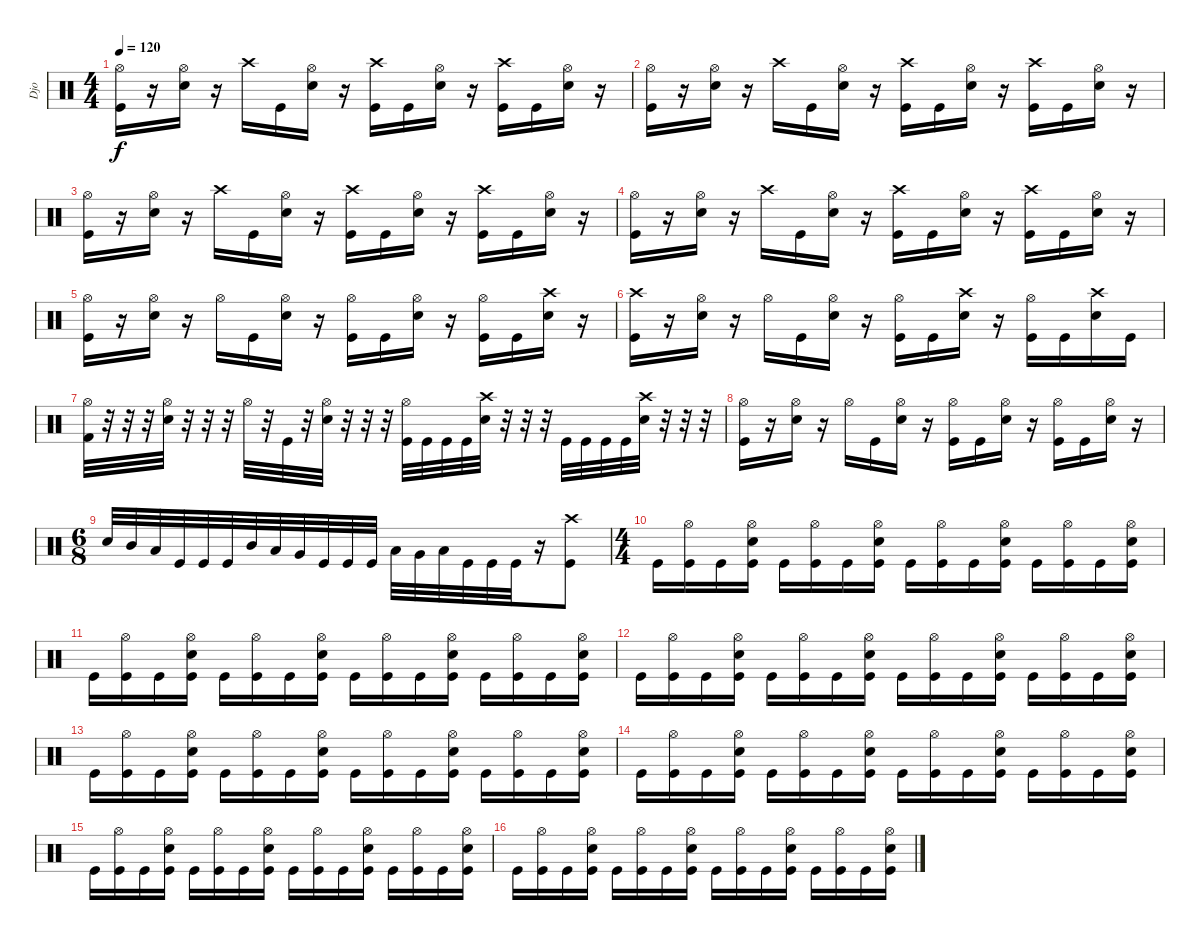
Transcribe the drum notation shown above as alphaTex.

\track ("Djo" "Djo") {instrument percussion}
\staff {score}
\articulation defaults
\ts (4 4)
\tempo 120
\clef neutral
\ks c
("Hi-Hat (open)" "Kick (hit)").16{dy f} r.16 ("Hi-Hat (open)" "Snare (hit) 2").16 r.16 "Crash high (hit)".16 "Kick (hit)".16 ("Hi-Hat (open)" "Snare (hit) 2").16 r.16 ("Crash high (hit)" "Kick (hit)").16 "Kick (hit)".16 ("Hi-Hat (open)" "Snare (hit) 2").16 r.16 ("Crash high (hit)" "Kick (hit)").16 "Kick (hit)".16 ("Hi-Hat (open)" "Snare (hit) 2").16 r.16 |
("Hi-Hat (open)" "Kick (hit)").16 r.16 ("Hi-Hat (open)" "Snare (hit) 2").16 r.16 "Crash high (hit)".16 "Kick (hit)".16 ("Hi-Hat (open)" "Snare (hit) 2").16 r.16 ("Crash high (hit)" "Kick (hit)").16 "Kick (hit)".16 ("Hi-Hat (open)" "Snare (hit) 2").16 r.16 ("Crash high (hit)" "Kick (hit)").16 "Kick (hit)".16 ("Hi-Hat (open)" "Snare (hit) 2").16 r.16 |
("Hi-Hat (open)" "Kick (hit)").16 r.16 ("Hi-Hat (open)" "Snare (hit) 2").16 r.16 "Crash high (hit)".16 "Kick (hit)".16 ("Hi-Hat (open)" "Snare (hit) 2").16 r.16 ("Crash high (hit)" "Kick (hit)").16 "Kick (hit)".16 ("Hi-Hat (open)" "Snare (hit) 2").16 r.16 ("Crash high (hit)" "Kick (hit)").16 "Kick (hit)".16 ("Hi-Hat (open)" "Snare (hit) 2").16 r.16 |
("Hi-Hat (open)" "Kick (hit)").16 r.16 ("Hi-Hat (open)" "Snare (hit) 2").16 r.16 "Crash high (hit)".16 "Kick (hit)".16 ("Hi-Hat (open)" "Snare (hit) 2").16 r.16 ("Crash high (hit)" "Kick (hit)").16 "Kick (hit)".16 ("Hi-Hat (open)" "Snare (hit) 2").16 r.16 ("Crash high (hit)" "Kick (hit)").16 "Kick (hit)".16 ("Hi-Hat (open)" "Snare (hit) 2").16 r.16 |
("Hi-Hat (open)" "Kick (hit)").16 r.16 ("Hi-Hat (open)" "Snare (hit) 2").16 r.16 "Hi-Hat (open)".16 "Kick (hit)".16 ("Hi-Hat (open)" "Snare (hit) 2").16 r.16 ("Hi-Hat (open)" "Kick (hit)").16 "Kick (hit)".16 ("Hi-Hat (open)" "Snare (hit) 2").16 r.16 ("Hi-Hat (open)" "Kick (hit)").16 "Kick (hit)".16 ("Crash high (hit)" "Snare (hit) 2").16 r.16 |
("Crash high (hit)" "Kick (hit)").16 r.16 ("Hi-Hat (open)" "Snare (hit) 2").16 r.16 "Hi-Hat (open)".16 "Kick (hit)".16 ("Hi-Hat (open)" "Snare (hit) 2").16 r.16 ("Hi-Hat (open)" "Kick (hit)").16 "Kick (hit)".16 ("Crash high (hit)" "Snare (hit) 2").16 r.16 ("Hi-Hat (open)" "Kick (hit)").16 "Kick (hit)".16 ("Crash high (hit)" "Snare (hit) 2").16 "Kick (hit)".16 |
("Hi-Hat (open)" "Kick (hit) 2").32 r.32 r.32 r.32 ("Hi-Hat (open)" "Snare (hit) 2").32 r.32 r.32 r.32 "Hi-Hat (open)".32 r.32 "Kick (hit)".32 r.32 ("Hi-Hat (open)" "Snare (hit) 2").32 r.32 r.32 r.32 ("Hi-Hat (open)" "Kick (hit)").32 "Kick (hit)".32 "Kick (hit)".32 "Kick (hit)".32 ("Crash high (hit)" "Snare (hit) 2").32 r.32 r.32 r.32 "Kick (hit)".32 "Kick (hit)".32 "Kick (hit)".32 "Kick (hit)".32 ("Crash high (hit)" "Snare (hit) 2").32 r.32 r.32 r.32 |
("Hi-Hat (open)" "Kick (hit)").16 r.16 ("Hi-Hat (open)" "Snare (hit) 2").16 r.16 "Hi-Hat (open)".16 "Kick (hit)".16 ("Hi-Hat (open)" "Snare (hit) 2").16 r.16 ("Hi-Hat (open)" "Kick (hit)").16 "Kick (hit)".16 ("Hi-Hat (open)" "Snare (hit) 2").16 r.16 ("Hi-Hat (open)" "Kick (hit)").16 "Kick (hit)".16 ("Hi-Hat (open)" "Snare (hit) 2").16 r.16 |
\ts (6 8)
"Snare (hit) 2".32 "Mid Tom (hit)".32 "Low Tom (hit)".32 "Kick (hit)".32 "Kick (hit)".32 "Kick (hit)".32 "Mid Tom (hit)".32 "Low Tom (hit)".32 "Very Low Tom (hit)".32 "Kick (hit)".32 "Kick (hit)".32 "Kick (hit)".32 "Low Tom (hit)".32 "Very Low Tom (hit)".32 "Low Floor Tom (hit)".32 "Kick (hit)".32 "Kick (hit)".32 "Kick (hit)".32 r.16 ("Crash high (hit)" "Kick (hit)").8 |
\ts (4 4)
"Kick (hit)".16 ("Hi-Hat (open)" "Kick (hit)").16 "Kick (hit)".16 ("Hi-Hat (open)" "Snare (hit) 2" "Kick (hit)").16 "Kick (hit)".16 ("Hi-Hat (open)" "Kick (hit)").16 "Kick (hit)".16 ("Hi-Hat (open)" "Snare (hit) 2" "Kick (hit)").16 "Kick (hit)".16 ("Hi-Hat (open)" "Kick (hit)").16 "Kick (hit)".16 ("Hi-Hat (open)" "Snare (hit) 2" "Kick (hit)").16 "Kick (hit)".16 ("Hi-Hat (open)" "Kick (hit)").16 "Kick (hit)".16 ("Hi-Hat (open)" "Snare (hit) 2" "Kick (hit)").16 |
"Kick (hit)".16 ("Hi-Hat (open)" "Kick (hit)").16 "Kick (hit)".16 ("Hi-Hat (open)" "Snare (hit) 2" "Kick (hit)").16 "Kick (hit)".16 ("Hi-Hat (open)" "Kick (hit)").16 "Kick (hit)".16 ("Hi-Hat (open)" "Snare (hit) 2" "Kick (hit)").16 "Kick (hit)".16 ("Hi-Hat (open)" "Kick (hit)").16 "Kick (hit)".16 ("Hi-Hat (open)" "Snare (hit) 2" "Kick (hit)").16 "Kick (hit)".16 ("Hi-Hat (open)" "Kick (hit)").16 "Kick (hit)".16 ("Hi-Hat (open)" "Snare (hit) 2" "Kick (hit)").16 |
"Kick (hit)".16 ("Hi-Hat (open)" "Kick (hit)").16 "Kick (hit)".16 ("Hi-Hat (open)" "Snare (hit) 2" "Kick (hit)").16 "Kick (hit)".16 ("Hi-Hat (open)" "Kick (hit)").16 "Kick (hit)".16 ("Hi-Hat (open)" "Snare (hit) 2" "Kick (hit)").16 "Kick (hit)".16 ("Hi-Hat (open)" "Kick (hit)").16 "Kick (hit)".16 ("Hi-Hat (open)" "Snare (hit) 2" "Kick (hit)").16 "Kick (hit)".16 ("Hi-Hat (open)" "Kick (hit)").16 "Kick (hit)".16 ("Hi-Hat (open)" "Snare (hit) 2" "Kick (hit)").16 |
"Kick (hit)".16 ("Hi-Hat (open)" "Kick (hit)").16 "Kick (hit)".16 ("Hi-Hat (open)" "Snare (hit) 2" "Kick (hit)").16 "Kick (hit)".16 ("Hi-Hat (open)" "Kick (hit)").16 "Kick (hit)".16 ("Hi-Hat (open)" "Snare (hit) 2" "Kick (hit)").16 "Kick (hit)".16 ("Hi-Hat (open)" "Kick (hit)").16 "Kick (hit)".16 ("Hi-Hat (open)" "Snare (hit) 2" "Kick (hit)").16 "Kick (hit)".16 ("Hi-Hat (open)" "Kick (hit)").16 "Kick (hit)".16 ("Hi-Hat (open)" "Snare (hit) 2" "Kick (hit)").16 |
"Kick (hit)".16 ("Hi-Hat (open)" "Kick (hit)").16 "Kick (hit)".16 ("Hi-Hat (open)" "Snare (hit) 2" "Kick (hit)").16 "Kick (hit)".16 ("Hi-Hat (open)" "Kick (hit)").16 "Kick (hit)".16 ("Hi-Hat (open)" "Snare (hit) 2" "Kick (hit)").16 "Kick (hit)".16 ("Hi-Hat (open)" "Kick (hit)").16 "Kick (hit)".16 ("Hi-Hat (open)" "Snare (hit) 2" "Kick (hit)").16 "Kick (hit)".16 ("Hi-Hat (open)" "Kick (hit)").16 "Kick (hit)".16 ("Hi-Hat (open)" "Snare (hit) 2" "Kick (hit)").16 |
"Kick (hit)".16 ("Hi-Hat (open)" "Kick (hit)").16 "Kick (hit)".16 ("Hi-Hat (open)" "Snare (hit) 2" "Kick (hit)").16 "Kick (hit)".16 ("Hi-Hat (open)" "Kick (hit)").16 "Kick (hit)".16 ("Hi-Hat (open)" "Snare (hit) 2" "Kick (hit)").16 "Kick (hit)".16 ("Hi-Hat (open)" "Kick (hit)").16 "Kick (hit)".16 ("Hi-Hat (open)" "Snare (hit) 2" "Kick (hit)").16 "Kick (hit)".16 ("Hi-Hat (open)" "Kick (hit)").16 "Kick (hit)".16 ("Hi-Hat (open)" "Snare (hit) 2" "Kick (hit)").16 |
"Kick (hit)".16 ("Hi-Hat (open)" "Kick (hit)").16 "Kick (hit)".16 ("Hi-Hat (open)" "Snare (hit) 2" "Kick (hit)").16 "Kick (hit)".16 ("Hi-Hat (open)" "Kick (hit)").16 "Kick (hit)".16 ("Hi-Hat (open)" "Snare (hit) 2" "Kick (hit)").16 "Kick (hit)".16 ("Hi-Hat (open)" "Kick (hit)").16 "Kick (hit)".16 ("Hi-Hat (open)" "Snare (hit) 2" "Kick (hit)").16 "Kick (hit)".16 ("Hi-Hat (open)" "Kick (hit)").16 "Kick (hit)".16 ("Hi-Hat (open)" "Snare (hit) 2" "Kick (hit)").16
